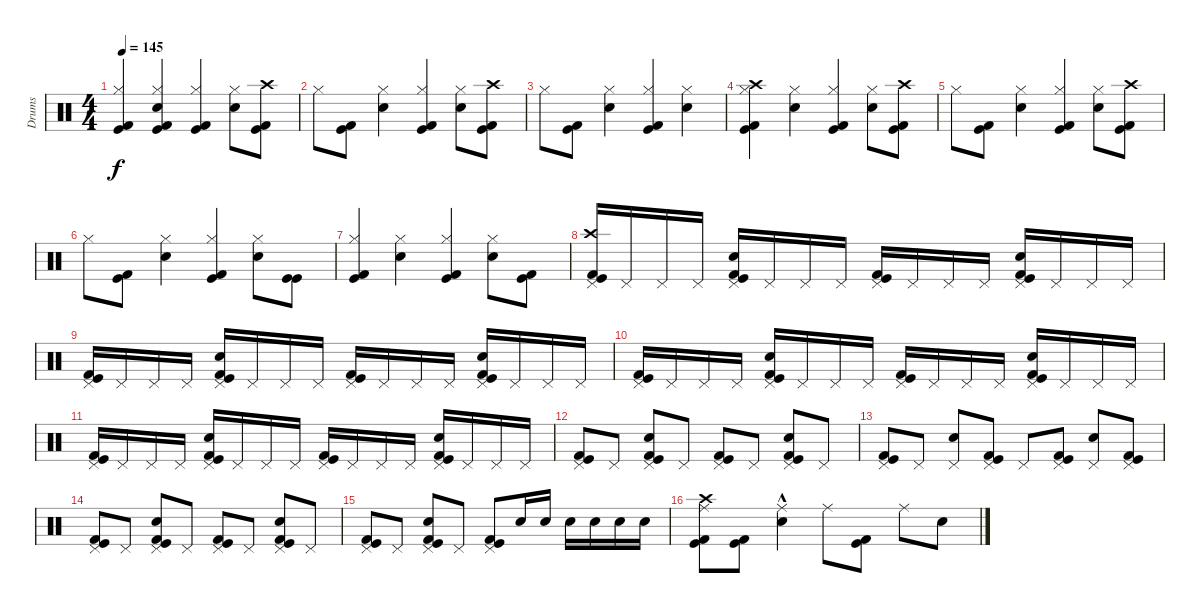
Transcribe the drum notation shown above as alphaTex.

\track ("Drums" "Drums") {instrument percussion}
\staff {score}
\articulation defaults
\ts (4 4)
\tempo 145
\clef neutral
\ks c
("Kick (hit) 2" "Hi-Hat (closed)" "Kick (hit)").4{dy f} ("Electric Snare (hit)" "Hi-Hat (closed)" "Kick (hit) 2" "Kick (hit)").4 ("Hi-Hat (closed)" "Kick (hit) 2" "Kick (hit)").4 ("Hi-Hat (closed)" "Electric Snare (hit)").8 ("Kick (hit) 2" "Crash high (hit)" "Kick (hit)").8 |
"Hi-Hat (closed)".8 ("Kick (hit) 2" "Kick (hit)").8 ("Hi-Hat (closed)" "Electric Snare (hit)").4 ("Hi-Hat (closed)" "Kick (hit) 2" "Kick (hit)").4 ("Electric Snare (hit)" "Hi-Hat (closed)").8 ("Kick (hit) 2" "Crash high (hit)" "Kick (hit)").8 |
"Hi-Hat (closed)".8 ("Kick (hit) 2" "Kick (hit)").8 ("Electric Snare (hit)" "Hi-Hat (closed)").4 ("Hi-Hat (closed)" "Kick (hit) 2" "Kick (hit)").4 ("Hi-Hat (closed)" "Electric Snare (hit)").4 |
("Crash high (hit)" "Hi-Hat (closed)" "Kick (hit) 2" "Kick (hit)").4 ("Hi-Hat (closed)" "Electric Snare (hit)").4 ("Hi-Hat (closed)" "Kick (hit) 2" "Kick (hit)").4 ("Electric Snare (hit)" "Hi-Hat (closed)").8 ("Crash high (hit)" "Kick (hit) 2" "Kick (hit)").8 |
"Hi-Hat (closed)".8 ("Kick (hit) 2" "Kick (hit)").8 ("Electric Snare (hit)" "Hi-Hat (closed)").4 ("Hi-Hat (closed)" "Kick (hit) 2" "Kick (hit)").4 ("Hi-Hat (closed)" "Electric Snare (hit)").8 ("Crash high (hit)" "Kick (hit) 2" "Kick (hit)").8 |
"Hi-Hat (closed)".8 ("Kick (hit) 2" "Kick (hit)").8 ("Hi-Hat (closed)" "Electric Snare (hit)").4 ("Hi-Hat (closed)" "Kick (hit) 2" "Kick (hit)").4 ("Electric Snare (hit)" "Hi-Hat (closed)").8 ("Kick (hit)" "Kick (hit)").8 |
("Hi-Hat (closed)" "Kick (hit) 2" "Kick (hit)").4 ("Hi-Hat (closed)" "Electric Snare (hit)").4 ("Hi-Hat (closed)" "Kick (hit) 2" "Kick (hit)").4 ("Hi-Hat (closed)" "Electric Snare (hit)").8 ("Kick (hit) 2" "Kick (hit)").8 |
("Crash high (hit)" "Kick (hit) 2" "Pedal Hi-Hat (hit)" "Kick (hit)").16 "Pedal Hi-Hat (hit)".16 "Pedal Hi-Hat (hit)".16 "Pedal Hi-Hat (hit)".16 ("Pedal Hi-Hat (hit)" "Electric Snare (hit)" "Kick (hit) 2" "Kick (hit)").16 "Pedal Hi-Hat (hit)".16 "Pedal Hi-Hat (hit)".16 "Pedal Hi-Hat (hit)".16 ("Pedal Hi-Hat (hit)" "Kick (hit) 2" "Kick (hit)").16 "Pedal Hi-Hat (hit)".16 "Pedal Hi-Hat (hit)".16 "Pedal Hi-Hat (hit)".16 ("Electric Snare (hit)" "Pedal Hi-Hat (hit)" "Kick (hit) 2" "Kick (hit)").16 "Pedal Hi-Hat (hit)".16 "Pedal Hi-Hat (hit)".16 "Pedal Hi-Hat (hit)".16 |
("Kick (hit) 2" "Pedal Hi-Hat (hit)" "Kick (hit)").16 "Pedal Hi-Hat (hit)".16 "Pedal Hi-Hat (hit)".16 "Pedal Hi-Hat (hit)".16 ("Pedal Hi-Hat (hit)" "Electric Snare (hit)" "Kick (hit) 2" "Kick (hit)").16 "Pedal Hi-Hat (hit)".16 "Pedal Hi-Hat (hit)".16 "Pedal Hi-Hat (hit)".16 ("Pedal Hi-Hat (hit)" "Kick (hit) 2" "Kick (hit)").16 "Pedal Hi-Hat (hit)".16 "Pedal Hi-Hat (hit)".16 "Pedal Hi-Hat (hit)".16 ("Electric Snare (hit)" "Pedal Hi-Hat (hit)" "Kick (hit) 2" "Kick (hit)").16 "Pedal Hi-Hat (hit)".16 "Pedal Hi-Hat (hit)".16 "Pedal Hi-Hat (hit)".16 |
("Kick (hit) 2" "Pedal Hi-Hat (hit)" "Kick (hit)").16 "Pedal Hi-Hat (hit)".16 "Pedal Hi-Hat (hit)".16 "Pedal Hi-Hat (hit)".16 ("Pedal Hi-Hat (hit)" "Electric Snare (hit)" "Kick (hit) 2" "Kick (hit)").16 "Pedal Hi-Hat (hit)".16 "Pedal Hi-Hat (hit)".16 "Pedal Hi-Hat (hit)".16 ("Pedal Hi-Hat (hit)" "Kick (hit) 2" "Kick (hit)").16 "Pedal Hi-Hat (hit)".16 "Pedal Hi-Hat (hit)".16 "Pedal Hi-Hat (hit)".16 ("Electric Snare (hit)" "Pedal Hi-Hat (hit)" "Kick (hit) 2" "Kick (hit)").16 "Pedal Hi-Hat (hit)".16 "Pedal Hi-Hat (hit)".16 "Pedal Hi-Hat (hit)".16 |
("Kick (hit) 2" "Pedal Hi-Hat (hit)" "Kick (hit)").16 "Pedal Hi-Hat (hit)".16 "Pedal Hi-Hat (hit)".16 "Pedal Hi-Hat (hit)".16 ("Pedal Hi-Hat (hit)" "Electric Snare (hit)" "Kick (hit) 2" "Kick (hit)").16 "Pedal Hi-Hat (hit)".16 "Pedal Hi-Hat (hit)".16 "Pedal Hi-Hat (hit)".16 ("Pedal Hi-Hat (hit)" "Kick (hit) 2" "Kick (hit)").16 "Pedal Hi-Hat (hit)".16 "Pedal Hi-Hat (hit)".16 "Pedal Hi-Hat (hit)".16 ("Electric Snare (hit)" "Pedal Hi-Hat (hit)" "Kick (hit) 2" "Kick (hit)").16 "Pedal Hi-Hat (hit)".16 "Pedal Hi-Hat (hit)".16 "Pedal Hi-Hat (hit)".16 |
("Kick (hit) 2" "Pedal Hi-Hat (hit)" "Kick (hit)").8 "Pedal Hi-Hat (hit)".8 ("Pedal Hi-Hat (hit)" "Electric Snare (hit)" "Kick (hit) 2" "Kick (hit)").8 "Pedal Hi-Hat (hit)".8 ("Pedal Hi-Hat (hit)" "Kick (hit) 2" "Kick (hit)").8 "Pedal Hi-Hat (hit)".8 ("Pedal Hi-Hat (hit)" "Electric Snare (hit)" "Kick (hit) 2" "Kick (hit)").8 "Pedal Hi-Hat (hit)".8 |
("Kick (hit) 2" "Pedal Hi-Hat (hit)" "Kick (hit)").8 "Pedal Hi-Hat (hit)".8 ("Pedal Hi-Hat (hit)" "Electric Snare (hit)").8 ("Kick (hit) 2" "Pedal Hi-Hat (hit)" "Kick (hit)").8 "Pedal Hi-Hat (hit)".8 ("Pedal Hi-Hat (hit)" "Kick (hit) 2" "Kick (hit)").8 ("Electric Snare (hit)" "Pedal Hi-Hat (hit)").8 ("Pedal Hi-Hat (hit)" "Kick (hit) 2" "Kick (hit)").8 |
("Kick (hit) 2" "Pedal Hi-Hat (hit)" "Kick (hit)").8 "Pedal Hi-Hat (hit)".8 ("Electric Snare (hit)" "Pedal Hi-Hat (hit)" "Kick (hit) 2" "Kick (hit)").8 "Pedal Hi-Hat (hit)".8 ("Kick (hit) 2" "Pedal Hi-Hat (hit)" "Kick (hit)").8 "Pedal Hi-Hat (hit)".8 ("Electric Snare (hit)" "Pedal Hi-Hat (hit)" "Kick (hit) 2" "Kick (hit)").8 "Pedal Hi-Hat (hit)".8 |
("Kick (hit) 2" "Pedal Hi-Hat (hit)" "Kick (hit)").8 "Pedal Hi-Hat (hit)".8 ("Electric Snare (hit)" "Pedal Hi-Hat (hit)" "Kick (hit) 2" "Kick (hit)").8 "Pedal Hi-Hat (hit)".8 ("Kick (hit) 2" "Pedal Hi-Hat (hit)" "Kick (hit)").8 "Electric Snare (hit)".16 "Electric Snare (hit)".16 "Electric Snare (hit)".16 "Electric Snare (hit)".16 "Electric Snare (hit)".16 "Electric Snare (hit)".16 |
("Ride (middle)" "Crash high (hit)" "Kick (hit) 2" "Kick (hit)").8 ("Kick (hit) 2" "Kick (hit)").8 ("Ride (middle)" "Electric Snare (hit)"{hac}).4 "Ride (middle)".8 ("Kick (hit) 2" "Kick (hit)").8 "Ride (middle)".8 "Electric Snare (hit)".8
